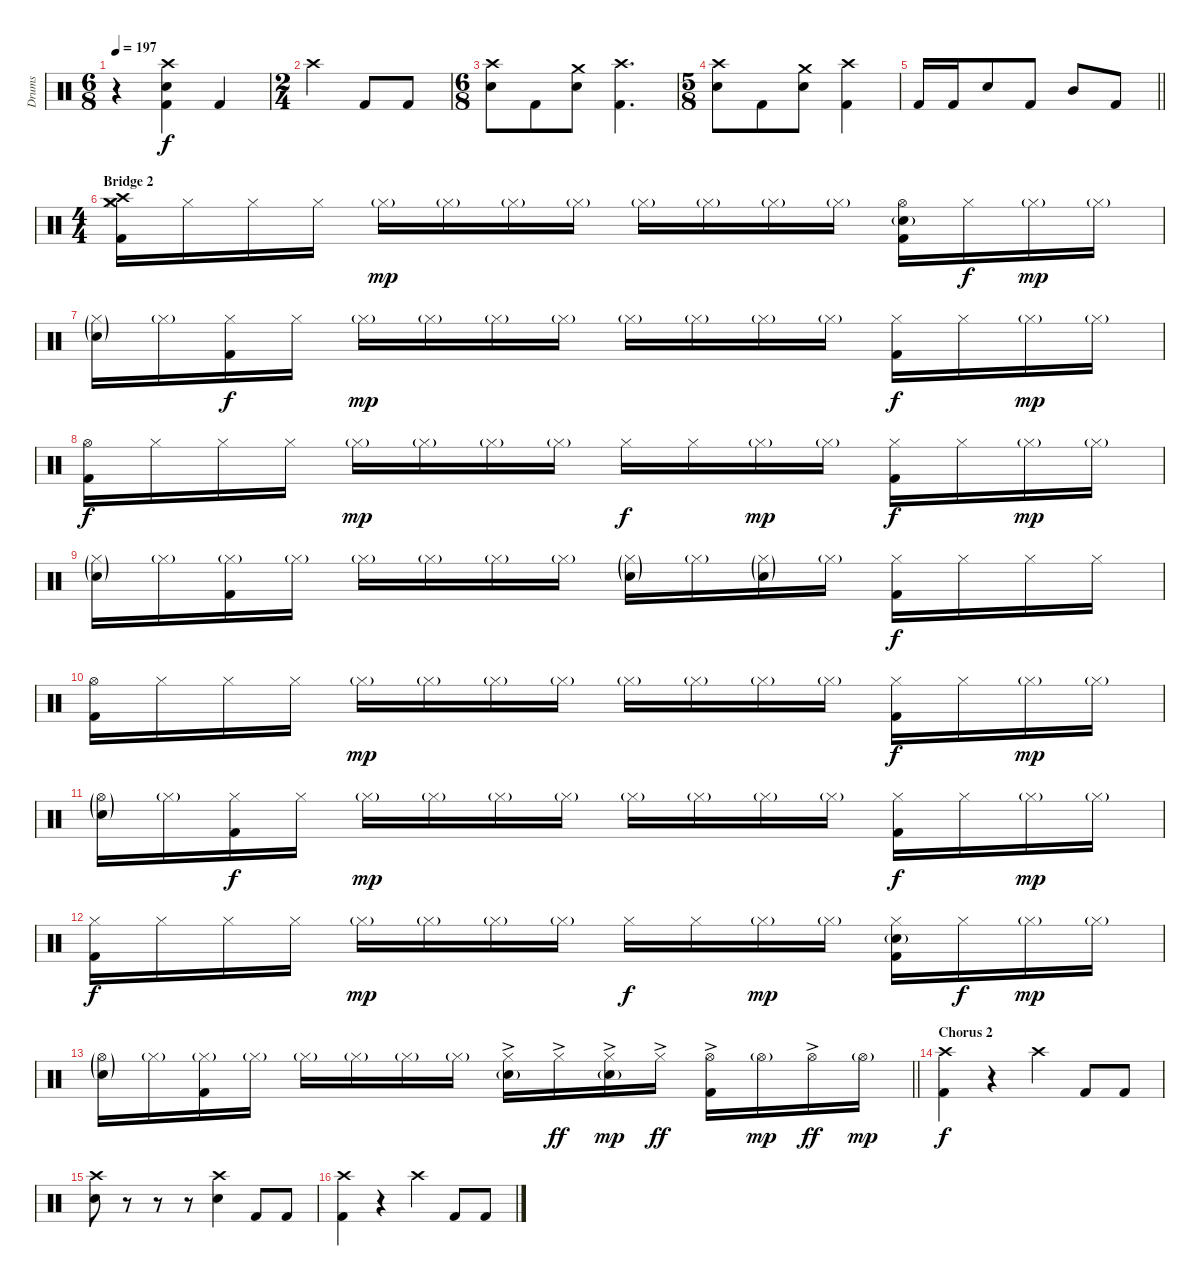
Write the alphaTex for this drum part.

\track ("Drums" "Drums") {instrument percussion}
\staff {score}
\articulation defaults
\ts (6 8)
\tempo 197
\clef neutral
\ks c
r.4{dy f} ("Crash high (hit)" "Electric Snare (hit)" "Kick (hit) 2").4 "Kick (hit) 2".4 |
\ts (2 4)
"Crash high (hit)".4 "Kick (hit) 2".8 "Kick (hit) 2".8 |
\ts (6 8)
("Crash high (hit)" "Electric Snare (hit)").8 "Kick (hit) 2".8 ("Crash medium (hit)" "Electric Snare (hit)").8 ("Crash high (hit)" "Kick (hit) 2").4{d} |
\ts (5 8)
("Crash high (hit)" "Electric Snare (hit)").8 "Kick (hit) 2".8 ("Crash medium (hit)" "Electric Snare (hit)").8 ("Crash high (hit)" "Kick (hit) 2").4 |
\barLineRight lightlight "Kick (hit) 2".16 "Kick (hit) 2".16 "Electric Snare (hit)".8 "Kick (hit) 2".8 "Mid Tom (hit)".8 "Kick (hit) 2".8
|
\ts (4 4)
\section ("" "Bridge 2")
("Crash medium (hit)" "Crash high (hit)" "Hi-Hat (closed)" "Kick (hit) 2").16 "Hi-Hat (closed)".16 "Hi-Hat (closed)".16 "Hi-Hat (closed)".16 "Hi-Hat (closed)"{g}.16{dy mp} "Hi-Hat (closed)"{g}.16 "Hi-Hat (closed)"{g}.16 "Hi-Hat (closed)"{g}.16 "Hi-Hat (closed)"{g}.16 "Hi-Hat (closed)"{g}.16 "Hi-Hat (closed)"{g}.16 "Hi-Hat (closed)"{g}.16 ("Hi-Hat (open)" "Snare (hit) 2"{g} "Kick (hit) 2").16 "Hi-Hat (closed)".16{dy f} "Hi-Hat (closed)"{g}.16{dy mp} "Hi-Hat (closed)"{g}.16 |
("Hi-Hat (closed)"{g} "Snare (hit) 2"{g}).16 "Hi-Hat (closed)"{g}.16 ("Hi-Hat (closed)" "Kick (hit) 2").16{dy f} "Hi-Hat (closed)".16 "Hi-Hat (closed)"{g}.16{dy mp} "Hi-Hat (closed)"{g}.16 "Hi-Hat (closed)"{g}.16 "Hi-Hat (closed)"{g}.16 "Hi-Hat (closed)"{g}.16 "Hi-Hat (closed)"{g}.16 "Hi-Hat (closed)"{g}.16 "Hi-Hat (closed)"{g}.16 ("Hi-Hat (closed)" "Kick (hit) 2").16{dy f} "Hi-Hat (closed)".16 "Hi-Hat (closed)"{g}.16{dy mp} "Hi-Hat (closed)"{g}.16 |
("Hi-Hat (open)" "Kick (hit) 2").16{dy f} "Hi-Hat (closed)".16 "Hi-Hat (closed)".16 "Hi-Hat (closed)".16 "Hi-Hat (closed)"{g}.16{dy mp} "Hi-Hat (closed)"{g}.16 "Hi-Hat (closed)"{g}.16 "Hi-Hat (closed)"{g}.16 "Hi-Hat (closed)".16{dy f} "Hi-Hat (closed)".16 "Hi-Hat (closed)"{g}.16{dy mp} "Hi-Hat (closed)"{g}.16 ("Hi-Hat (closed)" "Kick (hit) 2").16{dy f} "Hi-Hat (closed)".16 "Hi-Hat (closed)"{g}.16{dy mp} "Hi-Hat (closed)"{g}.16 |
("Hi-Hat (closed)"{g} "Snare (hit) 2"{g}).16 "Hi-Hat (closed)"{g}.16 ("Hi-Hat (closed)"{g} "Kick (hit) 2").16 "Hi-Hat (closed)"{g}.16 "Hi-Hat (closed)"{g}.16 "Hi-Hat (closed)"{g}.16 "Hi-Hat (closed)"{g}.16 "Hi-Hat (closed)"{g}.16 ("Hi-Hat (closed)"{g} "Snare (hit) 2"{g}).16 "Hi-Hat (closed)"{g}.16 ("Hi-Hat (closed)"{g} "Snare (hit) 2"{g}).16 "Hi-Hat (closed)"{g}.16 ("Hi-Hat (closed)" "Kick (hit) 2").16{dy f} "Hi-Hat (closed)".16 "Hi-Hat (closed)".16 "Hi-Hat (closed)".16 |
("Hi-Hat (open)" "Kick (hit) 2").16 "Hi-Hat (closed)".16 "Hi-Hat (closed)".16 "Hi-Hat (closed)".16 "Hi-Hat (closed)"{g}.16{dy mp} "Hi-Hat (closed)"{g}.16 "Hi-Hat (closed)"{g}.16 "Hi-Hat (closed)"{g}.16 "Hi-Hat (closed)"{g}.16 "Hi-Hat (closed)"{g}.16 "Hi-Hat (closed)"{g}.16 "Hi-Hat (closed)"{g}.16 ("Hi-Hat (closed)" "Kick (hit) 2").16{dy f} "Hi-Hat (closed)".16 "Hi-Hat (closed)"{g}.16{dy mp} "Hi-Hat (closed)"{g}.16 |
("Hi-Hat (open)"{g} "Snare (hit) 2"{g}).16 "Hi-Hat (closed)"{g}.16 ("Hi-Hat (closed)" "Kick (hit) 2").16{dy f} "Hi-Hat (closed)".16 "Hi-Hat (closed)"{g}.16{dy mp} "Hi-Hat (closed)"{g}.16 "Hi-Hat (closed)"{g}.16 "Hi-Hat (closed)"{g}.16 "Hi-Hat (closed)"{g}.16 "Hi-Hat (closed)"{g}.16 "Hi-Hat (closed)"{g}.16 "Hi-Hat (closed)"{g}.16 ("Hi-Hat (closed)" "Kick (hit) 2").16{dy f} "Hi-Hat (closed)".16 "Hi-Hat (closed)"{g}.16{dy mp} "Hi-Hat (closed)"{g}.16 |
("Hi-Hat (closed)" "Kick (hit) 2").16{dy f} "Hi-Hat (closed)".16 "Hi-Hat (closed)".16 "Hi-Hat (closed)".16 "Hi-Hat (closed)"{g}.16{dy mp} "Hi-Hat (closed)"{g}.16 "Hi-Hat (closed)"{g}.16 "Hi-Hat (closed)"{g}.16 "Hi-Hat (closed)".16{dy f} "Hi-Hat (closed)".16 "Hi-Hat (closed)"{g}.16{dy mp} "Hi-Hat (closed)"{g}.16 ("Hi-Hat (closed)" "Snare (hit) 2"{g} "Kick (hit) 2").16 "Hi-Hat (closed)".16{dy f} "Hi-Hat (closed)"{g}.16{dy mp} "Hi-Hat (closed)"{g}.16 |
\barLineRight lightlight
("Hi-Hat (open)"{g} "Snare (hit) 2"{g}).16 "Hi-Hat (closed)"{g}.16 ("Hi-Hat (closed)"{g} "Kick (hit) 2").16 "Hi-Hat (closed)"{g}.16 "Hi-Hat (closed)"{g}.16 "Hi-Hat (closed)"{g}.16 "Hi-Hat (closed)"{g}.16 "Hi-Hat (closed)"{g}.16 ("Hi-Hat (closed)"{ac} "Snare (hit) 2"{g}).16 "Hi-Hat (closed)"{ac}.16{dy ff} ("Hi-Hat (closed)"{ac} "Snare (hit) 2"{g}).16{dy mp} "Hi-Hat (closed)"{ac}.16{dy ff} ("Hi-Hat (open)"{ac} "Kick (hit) 2").16 "Hi-Hat (open)"{g}.16{dy mp} "Hi-Hat (open)"{ac}.16{dy ff} "Hi-Hat (open)"{g}.16{dy mp} |
\section ("" "Chorus 2")
("Crash high (hit)" "Kick (hit) 2").4{dy f} r.4 "Crash high (hit)".4 "Kick (hit) 2".8 "Kick (hit) 2".8 |
("Crash high (hit)" "Electric Snare (hit)").8 r.8 r.8 r.8 ("Crash high (hit)" "Electric Snare (hit)").4 "Kick (hit) 2".8 "Kick (hit) 2".8 |
("Crash high (hit)" "Kick (hit) 2").4 r.4 "Crash high (hit)".4 "Kick (hit) 2".8 "Kick (hit) 2".8
